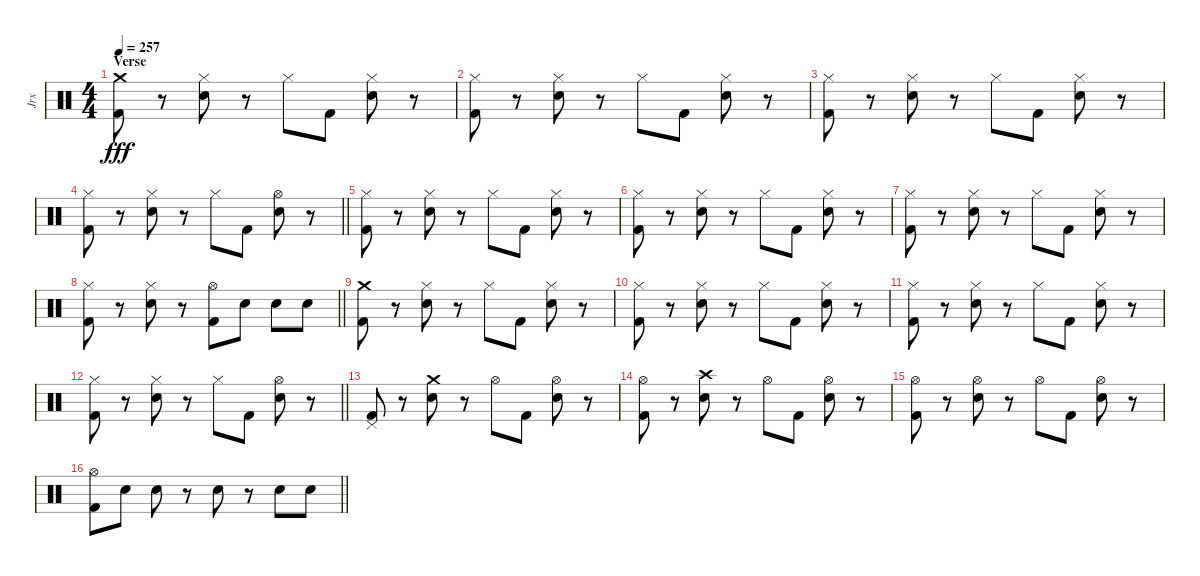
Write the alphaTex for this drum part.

\track ("Jrx" "Jrx") {instrument percussion}
\staff {score}
\articulation defaults
\ts (4 4)
\section ("" "Verse")
\tempo 257
\clef neutral
\ks c
("Kick (hit) 2" "Crash medium (hit)").8{dy fff} r.8 ("Hi-Hat (closed)" "Snare (hit) 2").8 r.8 "Hi-Hat (closed)".8 "Kick (hit) 2".8 ("Hi-Hat (closed)" "Snare (hit) 2").8 r.8 |
("Hi-Hat (closed)" "Kick (hit) 2").8 r.8 ("Hi-Hat (closed)" "Snare (hit) 2").8 r.8 "Hi-Hat (closed)".8 "Kick (hit) 2".8 ("Hi-Hat (closed)" "Snare (hit) 2").8 r.8 |
("Hi-Hat (closed)" "Kick (hit) 2").8 r.8 ("Hi-Hat (closed)" "Snare (hit) 2").8 r.8 "Hi-Hat (closed)".8 "Kick (hit) 2".8 ("Hi-Hat (closed)" "Snare (hit) 2").8 r.8 |
\barLineRight lightlight
("Hi-Hat (closed)" "Kick (hit) 2").8 r.8 ("Hi-Hat (closed)" "Snare (hit) 2").8 r.8 "Hi-Hat (closed)".8 "Kick (hit) 2".8 ("Hi-Hat (open)" "Snare (hit) 2").8 r.8 |
("Hi-Hat (closed)" "Kick (hit) 2").8 r.8 ("Hi-Hat (closed)" "Snare (hit) 2").8 r.8 "Hi-Hat (closed)".8 "Kick (hit) 2".8 ("Hi-Hat (closed)" "Snare (hit) 2").8 r.8 |
("Hi-Hat (closed)" "Kick (hit) 2").8 r.8 ("Hi-Hat (closed)" "Snare (hit) 2").8 r.8 "Hi-Hat (closed)".8 "Kick (hit) 2".8 ("Hi-Hat (closed)" "Snare (hit) 2").8 r.8 |
("Hi-Hat (closed)" "Kick (hit) 2").8 r.8 ("Hi-Hat (closed)" "Snare (hit) 2").8 r.8 "Hi-Hat (closed)".8 "Kick (hit) 2".8 ("Hi-Hat (closed)" "Snare (hit) 2").8 r.8 |
\barLineRight lightlight
("Hi-Hat (closed)" "Kick (hit) 2").8 r.8 ("Hi-Hat (closed)" "Snare (hit) 2").8 r.8 ("Hi-Hat (open)" "Kick (hit) 2").8 "Snare (hit) 2".8 "Snare (hit) 2".8 "Snare (hit) 2".8 |
("Kick (hit) 2" "Crash medium (hit)").8 r.8 ("Hi-Hat (closed)" "Snare (hit) 2").8 r.8 "Hi-Hat (closed)".8 "Kick (hit) 2".8 ("Hi-Hat (closed)" "Snare (hit) 2").8 r.8 |
("Hi-Hat (closed)" "Kick (hit) 2").8 r.8 ("Hi-Hat (closed)" "Snare (hit) 2").8 r.8 "Hi-Hat (closed)".8 "Kick (hit) 2".8 ("Hi-Hat (closed)" "Snare (hit) 2").8 r.8 |
("Hi-Hat (closed)" "Kick (hit) 2").8 r.8 ("Hi-Hat (closed)" "Snare (hit) 2").8 r.8 "Hi-Hat (closed)".8 "Kick (hit) 2".8 ("Hi-Hat (closed)" "Snare (hit) 2").8 r.8 |
\barLineRight lightlight
("Hi-Hat (closed)" "Kick (hit) 2").8 r.8 ("Hi-Hat (closed)" "Snare (hit) 2").8 r.8 "Hi-Hat (closed)".8 "Kick (hit) 2".8 ("Hi-Hat (open)" "Snare (hit) 2").8 r.8 |
("Pedal Hi-Hat (hit)" "Kick (hit) 2").8 r.8 ("Snare (hit) 2" "Crash medium (hit)").8 r.8 "Hi-Hat (open)".8 "Kick (hit) 2".8 ("Hi-Hat (open)" "Snare (hit) 2").8 r.8 |
("Hi-Hat (open)" "Kick (hit) 2").8 r.8 ("Snare (hit) 2" "Crash high (hit)").8 r.8 "Hi-Hat (open)".8 "Kick (hit) 2".8 ("Hi-Hat (open)" "Snare (hit) 2").8 r.8 |
("Hi-Hat (open)" "Kick (hit) 2").8 r.8 ("Hi-Hat (open)" "Snare (hit) 2").8 r.8 "Hi-Hat (open)".8 "Kick (hit) 2".8 ("Hi-Hat (open)" "Snare (hit) 2").8 r.8 |
\barLineRight lightlight
("Hi-Hat (open)" "Kick (hit) 2").8 "Snare (hit) 2".8 "Snare (hit) 2".8 r.8 "Snare (hit) 2".8 r.8 "Snare (hit) 2".8 "Snare (hit) 2".8
